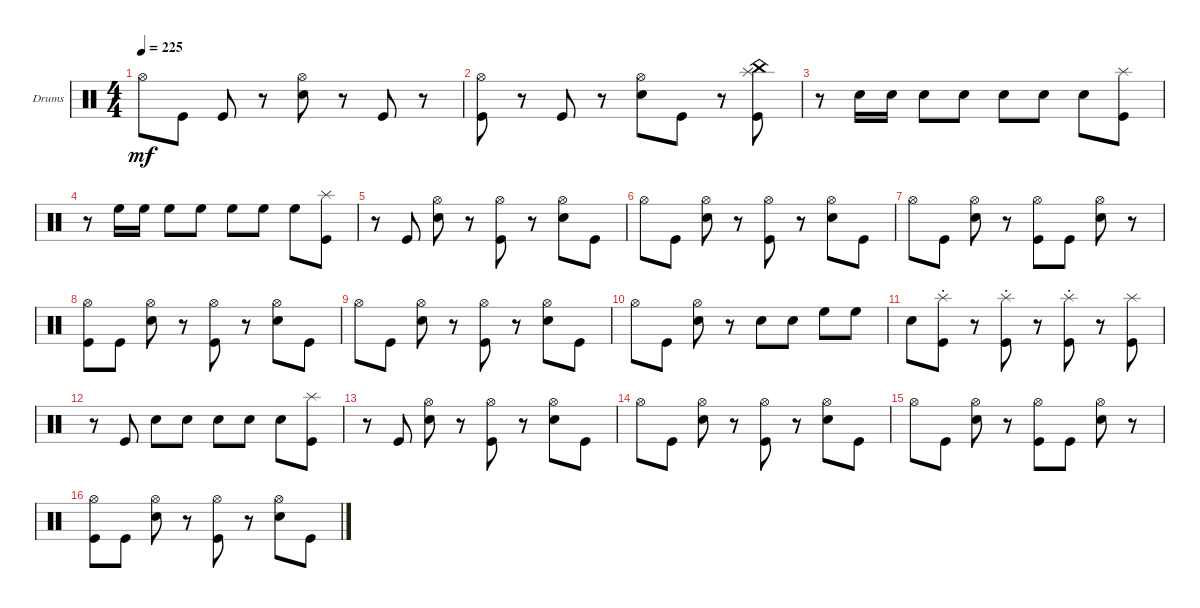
\bracketExtendMode groupsimilarinstruments
\firstSystemTrackNameOrientation horizontal
\otherSystemsTrackNameOrientation horizontal
\track ("Drumkit" "Drums") {instrument percussion}
\staff {score}
\articulation defaults
\ts (4 4)
\tempo 225
\clef neutral
\ks c "Hi-Hat (open)".8{dy mf} "Kick (hit)".8 "Kick (hit)".8
r.8 ("Snare (hit) 2" "Hi-Hat (open)").8 r.8 "Kick (hit)".8 r.8 |
("Kick (hit)" "Hi-Hat (open)").8 r.8 "Kick (hit)".8 r.8 ("Snare (hit) 2" "Hi-Hat (open)").8 "Kick (hit)".8 r.8 ("Kick (hit)" "China (hit)" "Splash (hit)").8 |
r.8 "Snare (hit) 2".16 "Snare (hit) 2".16 "Snare (hit) 2".8 "Snare (hit) 2".8 "Snare (hit) 2".8 "Snare (hit) 2".8 "Snare (hit) 2".8 ("Kick (hit)" "Splash (hit)").8 |
r.8 "High Floor Tom (hit)".16 "High Floor Tom (hit)".16 "High Floor Tom (hit)".8 "High Floor Tom (hit)".8 "High Floor Tom (hit)".8 "High Floor Tom (hit)".8 "High Floor Tom (hit)".8 ("Kick (hit)" "Splash (hit)").8 |
r.8 "Kick (hit)".8 ("Snare (hit) 2" "Hi-Hat (open)").8 r.8 ("Kick (hit)" "Hi-Hat (open)").8 r.8 ("Snare (hit) 2" "Hi-Hat (open)").8 "Kick (hit)".8 |
"Hi-Hat (open)".8 "Kick (hit)".8 ("Snare (hit) 2" "Hi-Hat (open)").8 r.8 ("Kick (hit)" "Hi-Hat (open)").8 r.8 ("Snare (hit) 2" "Hi-Hat (open)").8 "Kick (hit)".8 |
"Hi-Hat (open)".8 "Kick (hit)".8 ("Snare (hit) 2" "Hi-Hat (open)").8 r.8 ("Kick (hit)" "Hi-Hat (open)").8 "Kick (hit)".8 ("Snare (hit) 2" "Hi-Hat (open)").8 r.8 |
("Kick (hit)" "Hi-Hat (open)").8 "Kick (hit)".8 ("Snare (hit) 2" "Hi-Hat (open)").8 r.8 ("Kick (hit)" "Hi-Hat (open)").8 r.8 ("Snare (hit) 2" "Hi-Hat (open)").8 "Kick (hit)".8 |
"Hi-Hat (open)".8 "Kick (hit)".8 ("Snare (hit) 2" "Hi-Hat (open)").8 r.8 ("Kick (hit)" "Hi-Hat (open)").8 r.8 ("Snare (hit) 2" "Hi-Hat (open)").8 "Kick (hit)".8 |
"Hi-Hat (open)".8 "Kick (hit)".8 ("Snare (hit) 2" "Hi-Hat (open)").8 r.8 "Snare (hit) 2".8 "Snare (hit) 2".8 "High Floor Tom (hit)".8 "High Floor Tom (hit)".8 |
"Snare (hit) 2".8 ("Kick (hit)" "Splash (hit)"{st}).8 r.8 ("Kick (hit)" "Splash (hit)"{st}).8 r.8 ("Kick (hit)" "Splash (hit)"{st}).8 r.8 ("Kick (hit)" "Splash (hit)").8 |
r.8 "Kick (hit)".8 "Snare (hit) 2".8 "Snare (hit) 2".8 "Snare (hit) 2".8 "Snare (hit) 2".8 "Snare (hit) 2".8 ("Kick (hit)" "Splash (hit)").8 |
r.8 "Kick (hit)".8 ("Snare (hit) 2" "Hi-Hat (open)").8 r.8 ("Kick (hit)" "Hi-Hat (open)").8 r.8 ("Snare (hit) 2" "Hi-Hat (open)").8 "Kick (hit)".8 |
"Hi-Hat (open)".8 "Kick (hit)".8 ("Snare (hit) 2" "Hi-Hat (open)").8 r.8 ("Kick (hit)" "Hi-Hat (open)").8 r.8 ("Snare (hit) 2" "Hi-Hat (open)").8 "Kick (hit)".8 |
"Hi-Hat (open)".8 "Kick (hit)".8 ("Snare (hit) 2" "Hi-Hat (open)").8 r.8 ("Kick (hit)" "Hi-Hat (open)").8 "Kick (hit)".8 ("Snare (hit) 2" "Hi-Hat (open)").8 r.8 |
("Kick (hit)" "Hi-Hat (open)").8 "Kick (hit)".8 ("Snare (hit) 2" "Hi-Hat (open)").8 r.8 ("Kick (hit)" "Hi-Hat (open)").8 r.8 ("Snare (hit) 2" "Hi-Hat (open)").8 "Kick (hit)".8
